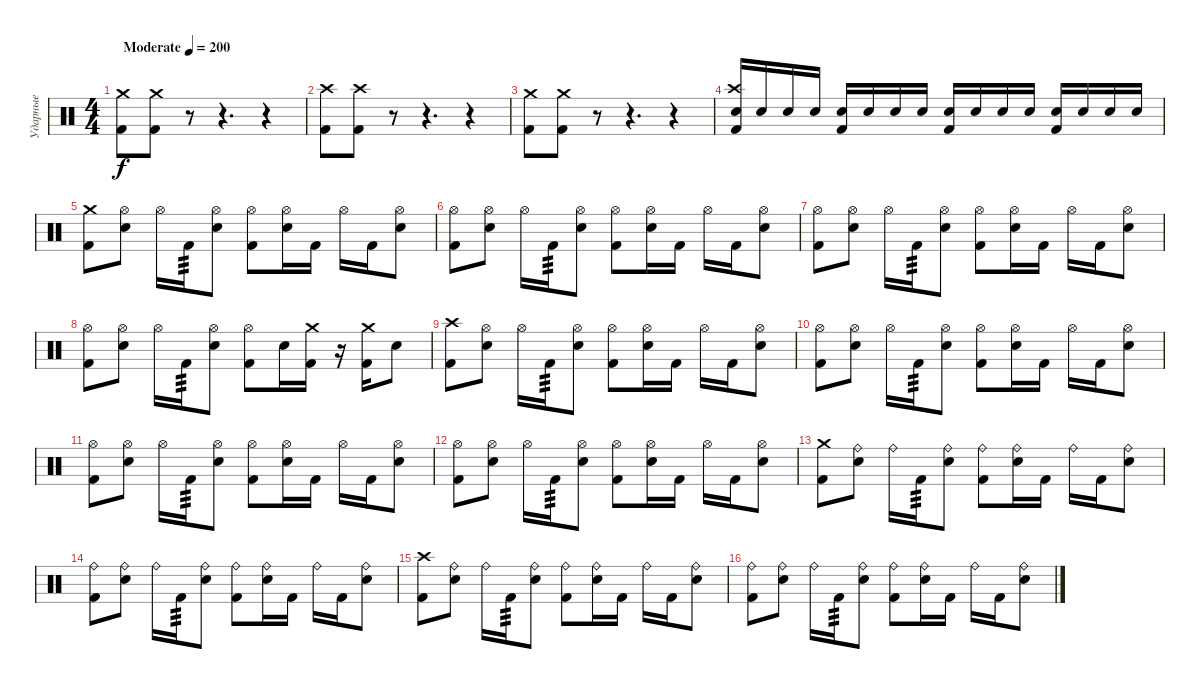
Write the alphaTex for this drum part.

\track ("Ударные" "Ударные") {instrument percussion}
\staff {score}
\articulation defaults
\ts (4 4)
\tempo (200 "Moderate")
\clef neutral
\ks c
("Crash medium (hit)" "Kick (hit) 2").8{dy f} ("Crash medium (hit)" "Kick (hit) 2").8 r.8{volume 0} r.4{d} r.4 |
("Crash high (hit)" "Kick (hit) 2").8{volume 13} ("Crash high (hit)" "Kick (hit) 2").8 r.8{volume 0} r.4{d} r.4 |
("Crash medium (hit)" "Kick (hit) 2").8{volume 13} ("Crash medium (hit)" "Kick (hit) 2").8 r.8{volume 0} r.4{d} r.4 |
("Crash high (hit)" "Kick (hit) 2" "Electric Snare (hit)").16{volume 13} "Electric Snare (hit)".16 "Electric Snare (hit)".16 "Electric Snare (hit)".16 ("Kick (hit) 2" "Electric Snare (hit)").16 "Electric Snare (hit)".16 "Electric Snare (hit)".16 "Electric Snare (hit)".16 ("Kick (hit) 2" "Electric Snare (hit)").16 "Electric Snare (hit)".16 "Electric Snare (hit)".16 "Electric Snare (hit)".16 ("Kick (hit) 2" "Electric Snare (hit)").16 "Electric Snare (hit)".16 "Electric Snare (hit)".16 "Electric Snare (hit)".16 |
("Kick (hit) 2" "Crash medium (hit)").8 ("Electric Snare (hit)" "Hi-Hat (open)").8 "Hi-Hat (open)".16 "Kick (hit) 2".16{tp 3} ("Electric Snare (hit)" "Hi-Hat (open)").8 ("Kick (hit) 2" "Hi-Hat (open)").8 ("Electric Snare (hit)" "Hi-Hat (open)").16 "Kick (hit) 2".16 "Hi-Hat (open)".16 "Kick (hit) 2".16 ("Electric Snare (hit)" "Hi-Hat (open)").8 |
("Kick (hit) 2" "Hi-Hat (open)").8 ("Electric Snare (hit)" "Hi-Hat (open)").8 "Hi-Hat (open)".16 "Kick (hit) 2".16{tp 3} ("Electric Snare (hit)" "Hi-Hat (open)").8 ("Kick (hit) 2" "Hi-Hat (open)").8 ("Electric Snare (hit)" "Hi-Hat (open)").16 "Kick (hit) 2".16 "Hi-Hat (open)".16 "Kick (hit) 2".16 ("Electric Snare (hit)" "Hi-Hat (open)").8 |
("Kick (hit) 2" "Hi-Hat (open)").8 ("Electric Snare (hit)" "Hi-Hat (open)").8 "Hi-Hat (open)".16 "Kick (hit) 2".16{tp 3} ("Electric Snare (hit)" "Hi-Hat (open)").8 ("Kick (hit) 2" "Hi-Hat (open)").8 ("Electric Snare (hit)" "Hi-Hat (open)").16 "Kick (hit) 2".16 "Hi-Hat (open)".16 "Kick (hit) 2".16 ("Electric Snare (hit)" "Hi-Hat (open)").8 |
("Kick (hit) 2" "Hi-Hat (open)").8 ("Electric Snare (hit)" "Hi-Hat (open)").8 "Hi-Hat (open)".16 "Kick (hit) 2".16{tp 3} ("Electric Snare (hit)" "Hi-Hat (open)").8 ("Kick (hit) 2" "Hi-Hat (open)").8 "Electric Snare (hit)".16 ("Kick (hit) 2" "Crash medium (hit)").16 r.16 ("Kick (hit) 2" "Crash medium (hit)").16 "Electric Snare (hit)".8 |
("Kick (hit) 2" "Crash high (hit)").8 ("Electric Snare (hit)" "Hi-Hat (open)").8 "Hi-Hat (open)".16 "Kick (hit) 2".16{tp 3} ("Electric Snare (hit)" "Hi-Hat (open)").8 ("Kick (hit) 2" "Hi-Hat (open)").8 ("Electric Snare (hit)" "Hi-Hat (open)").16 "Kick (hit) 2".16 "Hi-Hat (open)".16 "Kick (hit) 2".16 ("Electric Snare (hit)" "Hi-Hat (open)").8 |
("Kick (hit) 2" "Hi-Hat (open)").8 ("Electric Snare (hit)" "Hi-Hat (open)").8 "Hi-Hat (open)".16 "Kick (hit) 2".16{tp 3} ("Electric Snare (hit)" "Hi-Hat (open)").8 ("Kick (hit) 2" "Hi-Hat (open)").8 ("Electric Snare (hit)" "Hi-Hat (open)").16 "Kick (hit) 2".16 "Hi-Hat (open)".16 "Kick (hit) 2".16 ("Electric Snare (hit)" "Hi-Hat (open)").8 |
("Kick (hit) 2" "Hi-Hat (open)").8 ("Electric Snare (hit)" "Hi-Hat (open)").8 "Hi-Hat (open)".16 "Kick (hit) 2".16{tp 3} ("Electric Snare (hit)" "Hi-Hat (open)").8 ("Kick (hit) 2" "Hi-Hat (open)").8 ("Electric Snare (hit)" "Hi-Hat (open)").16 "Kick (hit) 2".16 "Hi-Hat (open)".16 "Kick (hit) 2".16 ("Electric Snare (hit)" "Hi-Hat (open)").8 |
("Kick (hit) 2" "Hi-Hat (open)").8 ("Electric Snare (hit)" "Hi-Hat (open)").8 "Hi-Hat (open)".16 "Kick (hit) 2".16{tp 3} ("Electric Snare (hit)" "Hi-Hat (open)").8 ("Kick (hit) 2" "Hi-Hat (open)").8 ("Electric Snare (hit)" "Hi-Hat (open)").16 "Kick (hit) 2".16 "Hi-Hat (open)".16 "Kick (hit) 2".16 ("Electric Snare (hit)" "Hi-Hat (open)").8 |
("Kick (hit) 2" "Crash medium (hit)").8 ("Electric Snare (hit)" "Ride (bell)").8 "Ride (bell)".16 "Kick (hit) 2".16{tp 3} ("Electric Snare (hit)" "Ride (bell)").8 ("Kick (hit) 2" "Ride (bell)").8 ("Electric Snare (hit)" "Ride (bell)").16 "Kick (hit) 2".16 "Ride (bell)".16 "Kick (hit) 2".16 ("Electric Snare (hit)" "Ride (bell)").8 |
("Kick (hit) 2" "Ride (bell)").8 ("Electric Snare (hit)" "Ride (bell)").8 "Ride (bell)".16 "Kick (hit) 2".16{tp 3} ("Electric Snare (hit)" "Ride (bell)").8 ("Kick (hit) 2" "Ride (bell)").8 ("Electric Snare (hit)" "Ride (bell)").16 "Kick (hit) 2".16 "Ride (bell)".16 "Kick (hit) 2".16 ("Electric Snare (hit)" "Ride (bell)").8 |
("Kick (hit) 2" "Crash high (hit)").8 ("Electric Snare (hit)" "Ride (bell)").8 "Ride (bell)".16 "Kick (hit) 2".16{tp 3} ("Electric Snare (hit)" "Ride (bell)").8 ("Kick (hit) 2" "Ride (bell)").8 ("Electric Snare (hit)" "Ride (bell)").16 "Kick (hit) 2".16 "Ride (bell)".16 "Kick (hit) 2".16 ("Electric Snare (hit)" "Ride (bell)").8 |
("Kick (hit) 2" "Ride (bell)").8 ("Electric Snare (hit)" "Ride (bell)").8 "Ride (bell)".16 "Kick (hit) 2".16{tp 3} ("Electric Snare (hit)" "Ride (bell)").8 ("Kick (hit) 2" "Ride (bell)").8 ("Electric Snare (hit)" "Ride (bell)").16 "Kick (hit) 2".16 "Ride (bell)".16 "Kick (hit) 2".16 ("Electric Snare (hit)" "Ride (bell)").8
